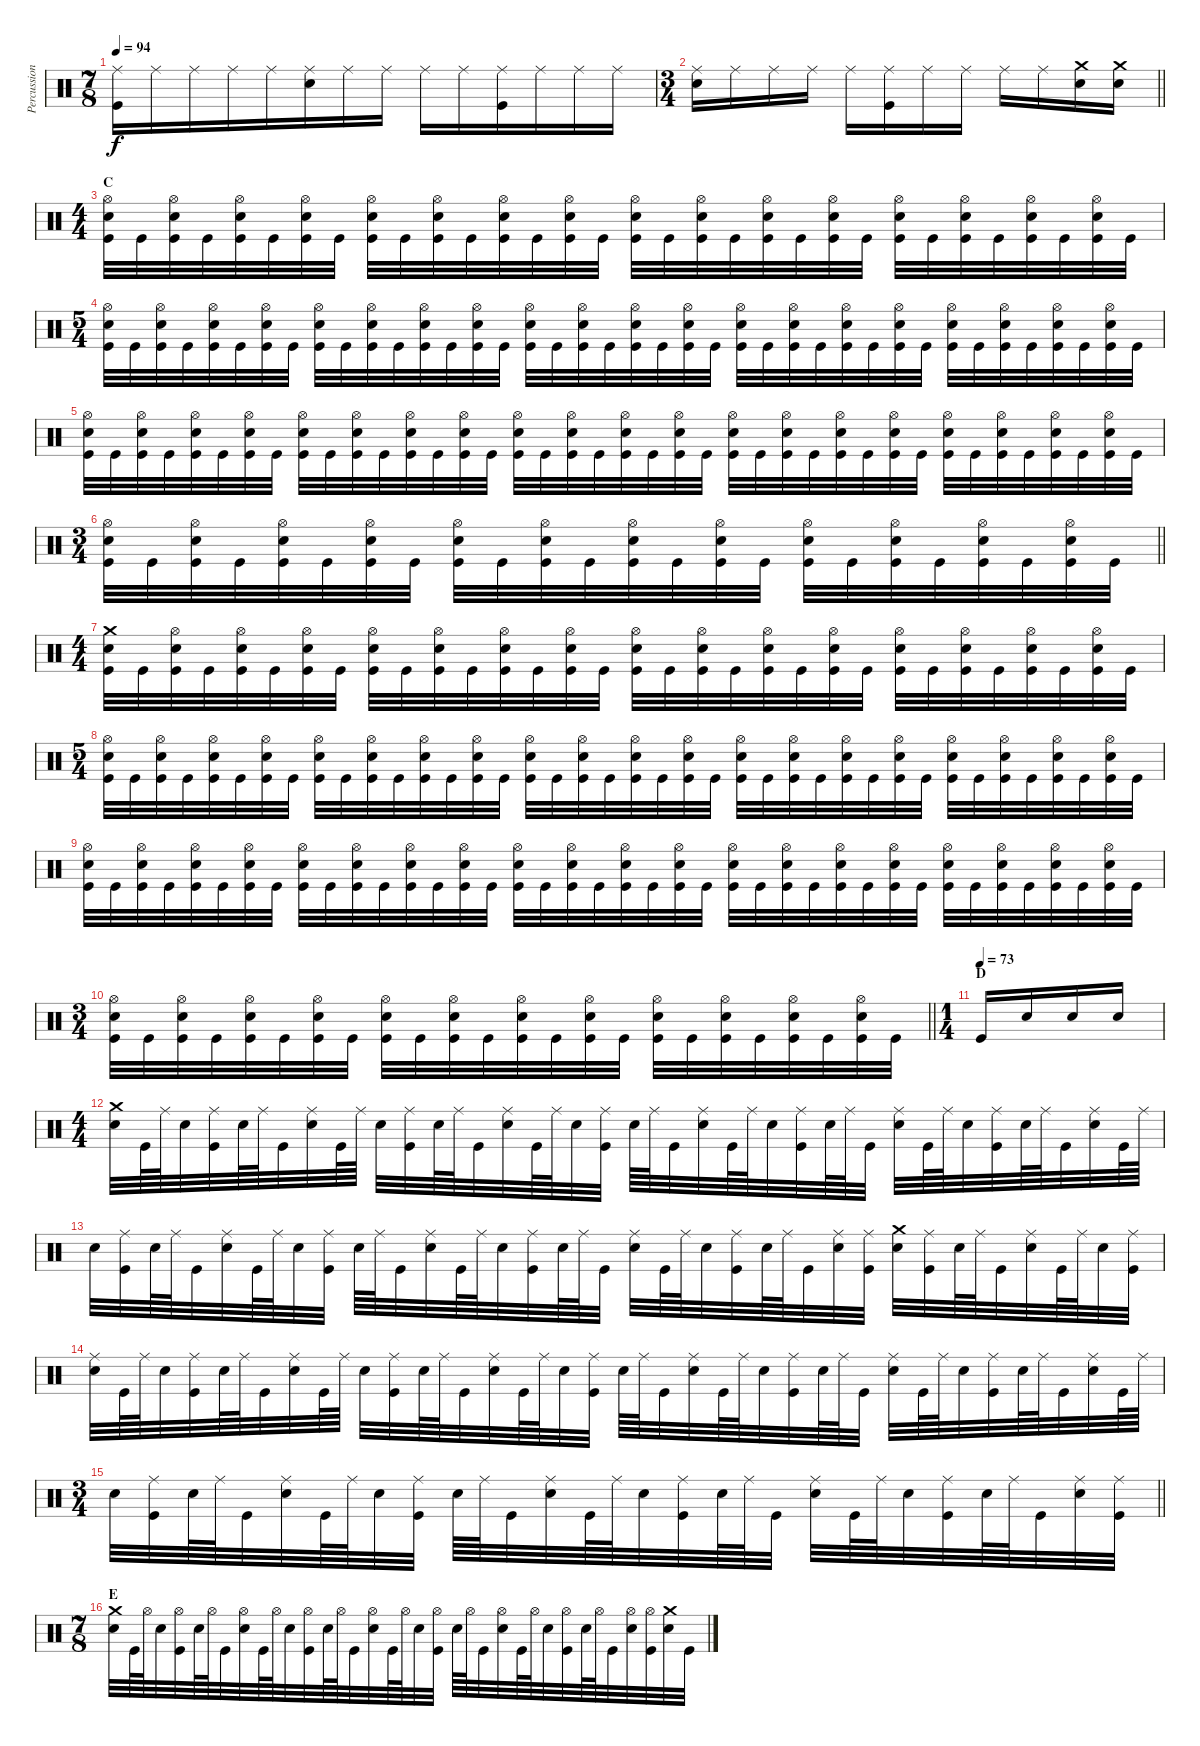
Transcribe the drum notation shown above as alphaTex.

\track ("Percussion" "Percussion") {instrument percussion}
\staff {score}
\articulation defaults
\ts (7 8)
\tempo 94
\clef neutral
\ks c
("Kick (hit)" "Ride (middle)").16{dy f} "Ride (middle)".16 "Ride (middle)".16 "Ride (middle)".16 "Ride (middle)".16 ("Snare (hit) 2" "Ride (middle)").16 "Ride (middle)".16 "Ride (middle)".16 "Ride (middle)".16 "Ride (middle)".16 ("Kick (hit)" "Ride (middle)").16 "Ride (middle)".16 "Ride (middle)".16 "Ride (middle)".16 |
\ts (3 4)
\barLineRight lightlight
("Snare (hit) 2" "Ride (middle)").16 "Ride (middle)".16 "Ride (middle)".16 "Ride (middle)".16 "Ride (middle)".16 ("Kick (hit)" "Ride (middle)").16 "Ride (middle)".16 "Ride (middle)".16 "Ride (middle)".16 "Ride (middle)".16 ("Snare (hit) 2" "Crash medium (hit)").16 ("Snare (hit) 2" "Crash medium (hit)").16 |
\ts (4 4)
\section ("" "C")
("Kick (hit)" "Snare (hit) 2" "Hi-Hat (open)").32 "Kick (hit)".32 ("Kick (hit)" "Snare (hit) 2" "Hi-Hat (open)").32 "Kick (hit)".32 ("Kick (hit)" "Snare (hit) 2" "Hi-Hat (open)").32 "Kick (hit)".32 ("Kick (hit)" "Snare (hit) 2" "Hi-Hat (open)").32 "Kick (hit)".32 ("Kick (hit)" "Snare (hit) 2" "Hi-Hat (open)").32 "Kick (hit)".32 ("Kick (hit)" "Snare (hit) 2" "Hi-Hat (open)").32 "Kick (hit)".32 ("Kick (hit)" "Snare (hit) 2" "Hi-Hat (open)").32 "Kick (hit)".32 ("Kick (hit)" "Snare (hit) 2" "Hi-Hat (open)").32 "Kick (hit)".32 ("Kick (hit)" "Snare (hit) 2" "Hi-Hat (open)").32 "Kick (hit)".32 ("Kick (hit)" "Snare (hit) 2" "Hi-Hat (open)").32 "Kick (hit)".32 ("Kick (hit)" "Snare (hit) 2" "Hi-Hat (open)").32 "Kick (hit)".32 ("Kick (hit)" "Snare (hit) 2" "Hi-Hat (open)").32 "Kick (hit)".32 ("Kick (hit)" "Snare (hit) 2" "Hi-Hat (open)").32 "Kick (hit)".32 ("Kick (hit)" "Snare (hit) 2" "Hi-Hat (open)").32 "Kick (hit)".32 ("Kick (hit)" "Snare (hit) 2" "Hi-Hat (open)").32 "Kick (hit)".32 ("Kick (hit)" "Snare (hit) 2" "Hi-Hat (open)").32 "Kick (hit)".32 |
\ts (5 4)
("Kick (hit)" "Snare (hit) 2" "Hi-Hat (open)").32 "Kick (hit)".32 ("Kick (hit)" "Snare (hit) 2" "Hi-Hat (open)").32 "Kick (hit)".32 ("Kick (hit)" "Snare (hit) 2" "Hi-Hat (open)").32 "Kick (hit)".32 ("Kick (hit)" "Snare (hit) 2" "Hi-Hat (open)").32 "Kick (hit)".32 ("Kick (hit)" "Snare (hit) 2" "Hi-Hat (open)").32 "Kick (hit)".32 ("Kick (hit)" "Snare (hit) 2" "Hi-Hat (open)").32 "Kick (hit)".32 ("Kick (hit)" "Snare (hit) 2" "Hi-Hat (open)").32 "Kick (hit)".32 ("Kick (hit)" "Snare (hit) 2" "Hi-Hat (open)").32 "Kick (hit)".32 ("Kick (hit)" "Snare (hit) 2" "Hi-Hat (open)").32 "Kick (hit)".32 ("Kick (hit)" "Snare (hit) 2" "Hi-Hat (open)").32 "Kick (hit)".32 ("Kick (hit)" "Snare (hit) 2" "Hi-Hat (open)").32 "Kick (hit)".32 ("Kick (hit)" "Snare (hit) 2" "Hi-Hat (open)").32 "Kick (hit)".32 ("Kick (hit)" "Snare (hit) 2" "Hi-Hat (open)").32 "Kick (hit)".32 ("Kick (hit)" "Snare (hit) 2" "Hi-Hat (open)").32 "Kick (hit)".32 ("Kick (hit)" "Snare (hit) 2" "Hi-Hat (open)").32 "Kick (hit)".32 ("Kick (hit)" "Snare (hit) 2" "Hi-Hat (open)").32 "Kick (hit)".32 ("Kick (hit)" "Snare (hit) 2" "Hi-Hat (open)").32 "Kick (hit)".32 ("Kick (hit)" "Snare (hit) 2" "Hi-Hat (open)").32 "Kick (hit)".32 ("Kick (hit)" "Snare (hit) 2" "Hi-Hat (open)").32 "Kick (hit)".32 ("Kick (hit)" "Snare (hit) 2" "Hi-Hat (open)").32 "Kick (hit)".32 |
("Kick (hit)" "Snare (hit) 2" "Hi-Hat (open)").32 "Kick (hit)".32 ("Kick (hit)" "Snare (hit) 2" "Hi-Hat (open)").32 "Kick (hit)".32 ("Kick (hit)" "Snare (hit) 2" "Hi-Hat (open)").32 "Kick (hit)".32 ("Kick (hit)" "Snare (hit) 2" "Hi-Hat (open)").32 "Kick (hit)".32 ("Kick (hit)" "Snare (hit) 2" "Hi-Hat (open)").32 "Kick (hit)".32 ("Kick (hit)" "Snare (hit) 2" "Hi-Hat (open)").32 "Kick (hit)".32 ("Kick (hit)" "Snare (hit) 2" "Hi-Hat (open)").32 "Kick (hit)".32 ("Kick (hit)" "Snare (hit) 2" "Hi-Hat (open)").32 "Kick (hit)".32 ("Kick (hit)" "Snare (hit) 2" "Hi-Hat (open)").32 "Kick (hit)".32 ("Kick (hit)" "Snare (hit) 2" "Hi-Hat (open)").32 "Kick (hit)".32 ("Kick (hit)" "Snare (hit) 2" "Hi-Hat (open)").32 "Kick (hit)".32 ("Kick (hit)" "Snare (hit) 2" "Hi-Hat (open)").32 "Kick (hit)".32 ("Kick (hit)" "Snare (hit) 2" "Hi-Hat (open)").32 "Kick (hit)".32 ("Kick (hit)" "Snare (hit) 2" "Hi-Hat (open)").32 "Kick (hit)".32 ("Kick (hit)" "Snare (hit) 2" "Hi-Hat (open)").32 "Kick (hit)".32 ("Kick (hit)" "Snare (hit) 2" "Hi-Hat (open)").32 "Kick (hit)".32 ("Kick (hit)" "Snare (hit) 2" "Hi-Hat (open)").32 "Kick (hit)".32 ("Kick (hit)" "Snare (hit) 2" "Hi-Hat (open)").32 "Kick (hit)".32 ("Kick (hit)" "Snare (hit) 2" "Hi-Hat (open)").32 "Kick (hit)".32 ("Kick (hit)" "Snare (hit) 2" "Hi-Hat (open)").32 "Kick (hit)".32 |
\ts (3 4)
\barLineRight lightlight
("Kick (hit)" "Snare (hit) 2" "Hi-Hat (open)").32 "Kick (hit)".32 ("Kick (hit)" "Snare (hit) 2" "Hi-Hat (open)").32 "Kick (hit)".32 ("Kick (hit)" "Snare (hit) 2" "Hi-Hat (open)").32 "Kick (hit)".32 ("Kick (hit)" "Snare (hit) 2" "Hi-Hat (open)").32 "Kick (hit)".32 ("Kick (hit)" "Snare (hit) 2" "Hi-Hat (open)").32 "Kick (hit)".32 ("Kick (hit)" "Snare (hit) 2" "Hi-Hat (open)").32 "Kick (hit)".32 ("Kick (hit)" "Snare (hit) 2" "Hi-Hat (open)").32 "Kick (hit)".32 ("Kick (hit)" "Snare (hit) 2" "Hi-Hat (open)").32 "Kick (hit)".32 ("Kick (hit)" "Snare (hit) 2" "Hi-Hat (open)").32 "Kick (hit)".32 ("Kick (hit)" "Snare (hit) 2" "Hi-Hat (open)").32 "Kick (hit)".32 ("Kick (hit)" "Snare (hit) 2" "Hi-Hat (open)").32 "Kick (hit)".32 ("Kick (hit)" "Snare (hit) 2" "Hi-Hat (open)").32 "Kick (hit)".32 |
\ts (4 4)
("Kick (hit)" "Snare (hit) 2" "Crash medium (hit)").32 "Kick (hit)".32 ("Kick (hit)" "Snare (hit) 2" "Hi-Hat (open)").32 "Kick (hit)".32 ("Kick (hit)" "Snare (hit) 2" "Hi-Hat (open)").32 "Kick (hit)".32 ("Kick (hit)" "Snare (hit) 2" "Hi-Hat (open)").32 "Kick (hit)".32 ("Kick (hit)" "Snare (hit) 2" "Hi-Hat (open)").32 "Kick (hit)".32 ("Kick (hit)" "Snare (hit) 2" "Hi-Hat (open)").32 "Kick (hit)".32 ("Kick (hit)" "Snare (hit) 2" "Hi-Hat (open)").32 "Kick (hit)".32 ("Kick (hit)" "Snare (hit) 2" "Hi-Hat (open)").32 "Kick (hit)".32 ("Kick (hit)" "Snare (hit) 2" "Hi-Hat (open)").32 "Kick (hit)".32 ("Kick (hit)" "Snare (hit) 2" "Hi-Hat (open)").32 "Kick (hit)".32 ("Kick (hit)" "Snare (hit) 2" "Hi-Hat (open)").32 "Kick (hit)".32 ("Kick (hit)" "Snare (hit) 2" "Hi-Hat (open)").32 "Kick (hit)".32 ("Kick (hit)" "Snare (hit) 2" "Hi-Hat (open)").32 "Kick (hit)".32 ("Kick (hit)" "Snare (hit) 2" "Hi-Hat (open)").32 "Kick (hit)".32 ("Kick (hit)" "Snare (hit) 2" "Hi-Hat (open)").32 "Kick (hit)".32 ("Kick (hit)" "Snare (hit) 2" "Hi-Hat (open)").32 "Kick (hit)".32 |
\ts (5 4)
("Kick (hit)" "Snare (hit) 2" "Hi-Hat (open)").32 "Kick (hit)".32 ("Kick (hit)" "Snare (hit) 2" "Hi-Hat (open)").32 "Kick (hit)".32 ("Kick (hit)" "Snare (hit) 2" "Hi-Hat (open)").32 "Kick (hit)".32 ("Kick (hit)" "Snare (hit) 2" "Hi-Hat (open)").32 "Kick (hit)".32 ("Kick (hit)" "Snare (hit) 2" "Hi-Hat (open)").32 "Kick (hit)".32 ("Kick (hit)" "Snare (hit) 2" "Hi-Hat (open)").32 "Kick (hit)".32 ("Kick (hit)" "Snare (hit) 2" "Hi-Hat (open)").32 "Kick (hit)".32 ("Kick (hit)" "Snare (hit) 2" "Hi-Hat (open)").32 "Kick (hit)".32 ("Kick (hit)" "Snare (hit) 2" "Hi-Hat (open)").32 "Kick (hit)".32 ("Kick (hit)" "Snare (hit) 2" "Hi-Hat (open)").32 "Kick (hit)".32 ("Kick (hit)" "Snare (hit) 2" "Hi-Hat (open)").32 "Kick (hit)".32 ("Kick (hit)" "Snare (hit) 2" "Hi-Hat (open)").32 "Kick (hit)".32 ("Kick (hit)" "Snare (hit) 2" "Hi-Hat (open)").32 "Kick (hit)".32 ("Kick (hit)" "Snare (hit) 2" "Hi-Hat (open)").32 "Kick (hit)".32 ("Kick (hit)" "Snare (hit) 2" "Hi-Hat (open)").32 "Kick (hit)".32 ("Kick (hit)" "Snare (hit) 2" "Hi-Hat (open)").32 "Kick (hit)".32 ("Kick (hit)" "Snare (hit) 2" "Hi-Hat (open)").32 "Kick (hit)".32 ("Kick (hit)" "Snare (hit) 2" "Hi-Hat (open)").32 "Kick (hit)".32 ("Kick (hit)" "Snare (hit) 2" "Hi-Hat (open)").32 "Kick (hit)".32 ("Kick (hit)" "Snare (hit) 2" "Hi-Hat (open)").32 "Kick (hit)".32 |
("Kick (hit)" "Snare (hit) 2" "Hi-Hat (open)").32 "Kick (hit)".32 ("Kick (hit)" "Snare (hit) 2" "Hi-Hat (open)").32 "Kick (hit)".32 ("Kick (hit)" "Snare (hit) 2" "Hi-Hat (open)").32 "Kick (hit)".32 ("Kick (hit)" "Snare (hit) 2" "Hi-Hat (open)").32 "Kick (hit)".32 ("Kick (hit)" "Snare (hit) 2" "Hi-Hat (open)").32 "Kick (hit)".32 ("Kick (hit)" "Snare (hit) 2" "Hi-Hat (open)").32 "Kick (hit)".32 ("Kick (hit)" "Snare (hit) 2" "Hi-Hat (open)").32 "Kick (hit)".32 ("Kick (hit)" "Snare (hit) 2" "Hi-Hat (open)").32 "Kick (hit)".32 ("Kick (hit)" "Snare (hit) 2" "Hi-Hat (open)").32 "Kick (hit)".32 ("Kick (hit)" "Snare (hit) 2" "Hi-Hat (open)").32 "Kick (hit)".32 ("Kick (hit)" "Snare (hit) 2" "Hi-Hat (open)").32 "Kick (hit)".32 ("Kick (hit)" "Snare (hit) 2" "Hi-Hat (open)").32 "Kick (hit)".32 ("Kick (hit)" "Snare (hit) 2" "Hi-Hat (open)").32 "Kick (hit)".32 ("Kick (hit)" "Snare (hit) 2" "Hi-Hat (open)").32 "Kick (hit)".32 ("Kick (hit)" "Snare (hit) 2" "Hi-Hat (open)").32 "Kick (hit)".32 ("Kick (hit)" "Snare (hit) 2" "Hi-Hat (open)").32 "Kick (hit)".32 ("Kick (hit)" "Snare (hit) 2" "Hi-Hat (open)").32 "Kick (hit)".32 ("Kick (hit)" "Snare (hit) 2" "Hi-Hat (open)").32 "Kick (hit)".32 ("Kick (hit)" "Snare (hit) 2" "Hi-Hat (open)").32 "Kick (hit)".32 ("Kick (hit)" "Snare (hit) 2" "Hi-Hat (open)").32 "Kick (hit)".32 |
\ts (3 4)
\barLineRight lightlight
("Kick (hit)" "Snare (hit) 2" "Hi-Hat (open)").32 "Kick (hit)".32 ("Kick (hit)" "Snare (hit) 2" "Hi-Hat (open)").32 "Kick (hit)".32 ("Kick (hit)" "Snare (hit) 2" "Hi-Hat (open)").32 "Kick (hit)".32 ("Kick (hit)" "Snare (hit) 2" "Hi-Hat (open)").32 "Kick (hit)".32 ("Kick (hit)" "Snare (hit) 2" "Hi-Hat (open)").32 "Kick (hit)".32 ("Kick (hit)" "Snare (hit) 2" "Hi-Hat (open)").32 "Kick (hit)".32 ("Kick (hit)" "Snare (hit) 2" "Hi-Hat (open)").32 "Kick (hit)".32 ("Kick (hit)" "Snare (hit) 2" "Hi-Hat (open)").32 "Kick (hit)".32 ("Kick (hit)" "Snare (hit) 2" "Hi-Hat (open)").32 "Kick (hit)".32 ("Kick (hit)" "Snare (hit) 2" "Hi-Hat (open)").32 "Kick (hit)".32 ("Kick (hit)" "Snare (hit) 2" "Hi-Hat (open)").32 "Kick (hit)".32 ("Kick (hit)" "Snare (hit) 2" "Hi-Hat (open)").32 "Kick (hit)".32 |
\ts (1 4)
\section ("" "D")
\tempo (73)
"Kick (hit)".16 "Snare (hit) 2".16 "Snare (hit) 2".16 "Snare (hit) 2".16 |
\ts (4 4)
("Snare (hit) 2" "Crash medium (hit)").32 "Kick (hit)".64 "Ride (middle)".64 "Snare (hit) 2".32 ("Kick (hit)" "Ride (middle)").32 "Snare (hit) 2".64 "Ride (middle)".64 "Kick (hit)".32 ("Snare (hit) 2" "Ride (middle)").32 "Kick (hit)".64 "Ride (middle)".64 "Snare (hit) 2".32 ("Kick (hit)" "Ride (middle)").32 "Snare (hit) 2".64 "Ride (middle)".64 "Kick (hit)".32 ("Snare (hit) 2" "Ride (middle)").32 "Kick (hit)".64 "Ride (middle)".64 "Snare (hit) 2".32 ("Kick (hit)" "Ride (middle)").32 "Snare (hit) 2".64 "Ride (middle)".64 "Kick (hit)".32 ("Snare (hit) 2" "Ride (middle)").32 "Kick (hit)".64 "Ride (middle)".64 "Snare (hit) 2".32 ("Kick (hit)" "Ride (middle)").32 "Snare (hit) 2".64 "Ride (middle)".64 "Kick (hit)".32 ("Snare (hit) 2" "Ride (middle)").32 "Kick (hit)".64 "Ride (middle)".64 "Snare (hit) 2".32 ("Kick (hit)" "Ride (middle)").32 "Snare (hit) 2".64 "Ride (middle)".64 "Kick (hit)".32 ("Snare (hit) 2" "Ride (middle)").32 "Kick (hit)".64 "Ride (middle)".64 |
"Snare (hit) 2".32 ("Kick (hit)" "Ride (middle)").32 "Snare (hit) 2".64 "Ride (middle)".64 "Kick (hit)".32 ("Snare (hit) 2" "Ride (middle)").32 "Kick (hit)".64 "Ride (middle)".64 "Snare (hit) 2".32 ("Kick (hit)" "Ride (middle)").32 "Snare (hit) 2".64 "Ride (middle)".64 "Kick (hit)".32 ("Snare (hit) 2" "Ride (middle)").32 "Kick (hit)".64 "Ride (middle)".64 "Snare (hit) 2".32 ("Kick (hit)" "Ride (middle)").32 "Snare (hit) 2".64 "Ride (middle)".64 "Kick (hit)".32 ("Snare (hit) 2" "Ride (middle)").32 "Kick (hit)".64 "Ride (middle)".64 "Snare (hit) 2".32 ("Kick (hit)" "Ride (middle)").32 "Snare (hit) 2".64 "Ride (middle)".64 "Kick (hit)".32 ("Snare (hit) 2" "Ride (middle)").32 ("Kick (hit)" "Ride (middle)").32 ("Snare (hit) 2" "Crash medium (hit)").32 ("Kick (hit)" "Ride (middle)").32 "Snare (hit) 2".64 "Ride (middle)".64 "Kick (hit)".32 ("Snare (hit) 2" "Ride (middle)").32 "Kick (hit)".64 "Ride (middle)".64 "Snare (hit) 2".32 ("Kick (hit)" "Ride (middle)").32 |
("Snare (hit) 2" "Ride (middle)").32 "Kick (hit)".64 "Ride (middle)".64 "Snare (hit) 2".32 ("Kick (hit)" "Ride (middle)").32 "Snare (hit) 2".64 "Ride (middle)".64 "Kick (hit)".32 ("Snare (hit) 2" "Ride (middle)").32 "Kick (hit)".64 "Ride (middle)".64 "Snare (hit) 2".32 ("Kick (hit)" "Ride (middle)").32 "Snare (hit) 2".64 "Ride (middle)".64 "Kick (hit)".32 ("Snare (hit) 2" "Ride (middle)").32 "Kick (hit)".64 "Ride (middle)".64 "Snare (hit) 2".32 ("Kick (hit)" "Ride (middle)").32 "Snare (hit) 2".64 "Ride (middle)".64 "Kick (hit)".32 ("Snare (hit) 2" "Ride (middle)").32 "Kick (hit)".64 "Ride (middle)".64 "Snare (hit) 2".32 ("Kick (hit)" "Ride (middle)").32 "Snare (hit) 2".64 "Ride (middle)".64 "Kick (hit)".32 ("Snare (hit) 2" "Ride (middle)").32 "Kick (hit)".64 "Ride (middle)".64 "Snare (hit) 2".32 ("Kick (hit)" "Ride (middle)").32 "Snare (hit) 2".64 "Ride (middle)".64 "Kick (hit)".32 ("Snare (hit) 2" "Ride (middle)").32 "Kick (hit)".64 "Ride (middle)".64 |
\ts (3 4)
\barLineRight lightlight "Snare (hit) 2".32
("Kick (hit)" "Ride (middle)").32 "Snare (hit) 2".64 "Ride (middle)".64 "Kick (hit)".32 ("Snare (hit) 2" "Ride (middle)").32 "Kick (hit)".64 "Ride (middle)".64 "Snare (hit) 2".32 ("Kick (hit)" "Ride (middle)").32 "Snare (hit) 2".64 "Ride (middle)".64 "Kick (hit)".32 ("Snare (hit) 2" "Ride (middle)").32 "Kick (hit)".64 "Ride (middle)".64 "Snare (hit) 2".32 ("Kick (hit)" "Ride (middle)").32 "Snare (hit) 2".64 "Ride (middle)".64 "Kick (hit)".32 ("Snare (hit) 2" "Ride (middle)").32 "Kick (hit)".64 "Ride (middle)".64 "Snare (hit) 2".32 ("Kick (hit)" "Ride (middle)").32 "Snare (hit) 2".64 "Ride (middle)".64 "Kick (hit)".32 ("Snare (hit) 2" "Ride (middle)").32 ("Kick (hit)" "Ride (middle)").32 |
\ts (7 8)
\section ("" "E")
("Snare (hit) 2" "Crash medium (hit)").32 "Kick (hit)".64 "Hi-Hat (open)".64 "Snare (hit) 2".32 ("Kick (hit)" "Hi-Hat (open)").32 "Snare (hit) 2".64 "Hi-Hat (open)".64 "Kick (hit)".32 ("Snare (hit) 2" "Hi-Hat (open)").32 "Kick (hit)".64 "Hi-Hat (open)".64 "Snare (hit) 2".32 ("Kick (hit)" "Hi-Hat (open)").32 "Snare (hit) 2".64 "Hi-Hat (open)".64 "Kick (hit)".32 ("Snare (hit) 2" "Hi-Hat (open)").32 "Kick (hit)".64 "Hi-Hat (open)".64 "Snare (hit) 2".32 ("Kick (hit)" "Hi-Hat (open)").32 "Snare (hit) 2".64 "Hi-Hat (open)".64 "Kick (hit)".32 ("Snare (hit) 2" "Hi-Hat (open)").32 "Kick (hit)".64 "Hi-Hat (open)".64 "Snare (hit) 2".32 ("Kick (hit)" "Hi-Hat (open)").32 "Snare (hit) 2".64 "Hi-Hat (open)".64 "Kick (hit)".32 ("Snare (hit) 2" "Hi-Hat (open)").32 ("Kick (hit)" "Hi-Hat (open)").32 ("Snare (hit) 2" "Crash medium (hit)").32 "Kick (hit)".32
